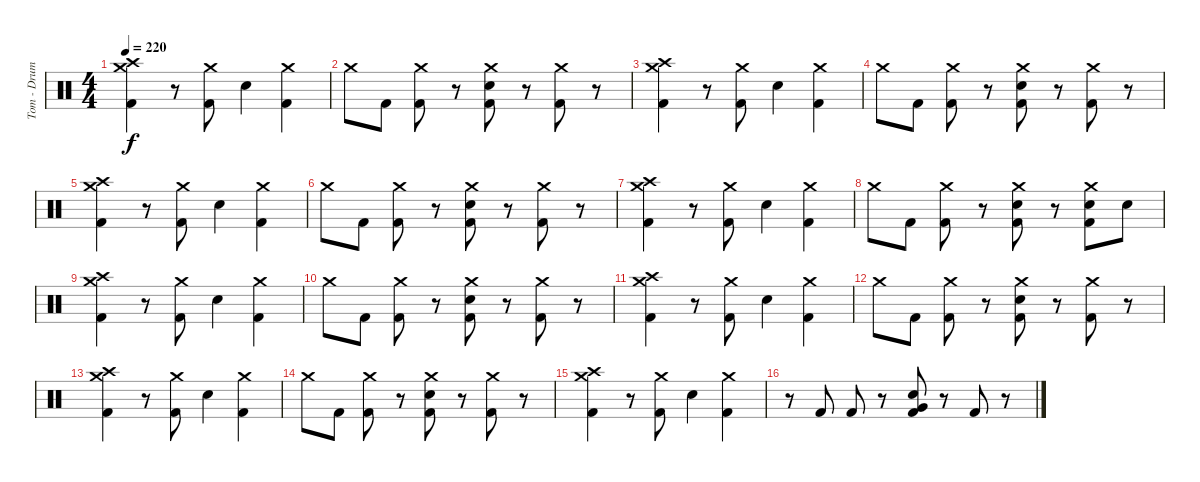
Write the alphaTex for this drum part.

\track ("Tom - Drums" "Tom - Drum") {instrument percussion}
\staff {score}
\articulation defaults
\ts (4 4)
\tempo 220
\clef neutral
\ks c
("Crash high (hit)" "Crash medium (hit)" "Kick (hit) 2").4{dy f} r.8 ("Crash medium (hit)" "Kick (hit) 2").8 "Electric Snare (hit)".4 ("Crash medium (hit)" "Kick (hit) 2").4 |
"Crash medium (hit)".8 "Kick (hit) 2".8 ("Crash medium (hit)" "Kick (hit) 2").8 r.8 ("Crash medium (hit)" "Electric Snare (hit)" "Kick (hit) 2").8 r.8 ("Crash medium (hit)" "Kick (hit) 2").8 r.8 |
("Crash high (hit)" "Crash medium (hit)" "Kick (hit) 2").4 r.8 ("Crash medium (hit)" "Kick (hit) 2").8 "Electric Snare (hit)".4 ("Crash medium (hit)" "Kick (hit) 2").4 |
"Crash medium (hit)".8 "Kick (hit) 2".8 ("Crash medium (hit)" "Kick (hit) 2").8 r.8 ("Crash medium (hit)" "Electric Snare (hit)" "Kick (hit) 2").8 r.8 ("Crash medium (hit)" "Kick (hit) 2").8 r.8 |
("Crash high (hit)" "Crash medium (hit)" "Kick (hit) 2").4 r.8 ("Crash medium (hit)" "Kick (hit) 2").8 "Electric Snare (hit)".4 ("Crash medium (hit)" "Kick (hit) 2").4 |
"Crash medium (hit)".8 "Kick (hit) 2".8 ("Crash medium (hit)" "Kick (hit) 2").8 r.8 ("Crash medium (hit)" "Electric Snare (hit)" "Kick (hit) 2").8 r.8 ("Crash medium (hit)" "Kick (hit) 2").8 r.8 |
("Crash high (hit)" "Crash medium (hit)" "Kick (hit) 2").4 r.8 ("Crash medium (hit)" "Kick (hit) 2").8 "Electric Snare (hit)".4 ("Crash medium (hit)" "Kick (hit) 2").4 |
"Crash medium (hit)".8 "Kick (hit) 2".8 ("Crash medium (hit)" "Kick (hit) 2").8 r.8 ("Crash medium (hit)" "Electric Snare (hit)" "Kick (hit) 2").8 r.8 ("Crash medium (hit)" "Electric Snare (hit)" "Kick (hit) 2").8 "Electric Snare (hit)".8 |
("Crash high (hit)" "Crash medium (hit)" "Kick (hit) 2").4 r.8 ("Crash medium (hit)" "Kick (hit) 2").8 "Electric Snare (hit)".4 ("Crash medium (hit)" "Kick (hit) 2").4 |
"Crash medium (hit)".8 "Kick (hit) 2".8 ("Crash medium (hit)" "Kick (hit) 2").8 r.8 ("Crash medium (hit)" "Electric Snare (hit)" "Kick (hit) 2").8 r.8 ("Crash medium (hit)" "Kick (hit) 2").8 r.8 |
("Crash high (hit)" "Crash medium (hit)" "Kick (hit) 2").4 r.8 ("Crash medium (hit)" "Kick (hit) 2").8 "Electric Snare (hit)".4 ("Crash medium (hit)" "Kick (hit) 2").4 |
"Crash medium (hit)".8 "Kick (hit) 2".8 ("Crash medium (hit)" "Kick (hit) 2").8 r.8 ("Crash medium (hit)" "Electric Snare (hit)" "Kick (hit) 2").8 r.8 ("Crash medium (hit)" "Kick (hit) 2").8 r.8 |
("Crash high (hit)" "Crash medium (hit)" "Kick (hit) 2").4 r.8 ("Crash medium (hit)" "Kick (hit) 2").8 "Electric Snare (hit)".4 ("Crash medium (hit)" "Kick (hit) 2").4 |
"Crash medium (hit)".8 "Kick (hit) 2".8 ("Crash medium (hit)" "Kick (hit) 2").8 r.8 ("Crash medium (hit)" "Electric Snare (hit)" "Kick (hit) 2").8 r.8 ("Crash medium (hit)" "Kick (hit) 2").8 r.8 |
("Crash high (hit)" "Crash medium (hit)" "Kick (hit) 2").4 r.8 ("Crash medium (hit)" "Kick (hit) 2").8 "Electric Snare (hit)".4 ("Crash medium (hit)" "Kick (hit) 2").4 |
r.8 "Kick (hit) 2".8 "Kick (hit) 2".8 r.8 ("Electric Snare (hit)" "Kick (hit) 2" "Very Low Tom (hit)").8 r.8 "Kick (hit) 2".8 r.8
